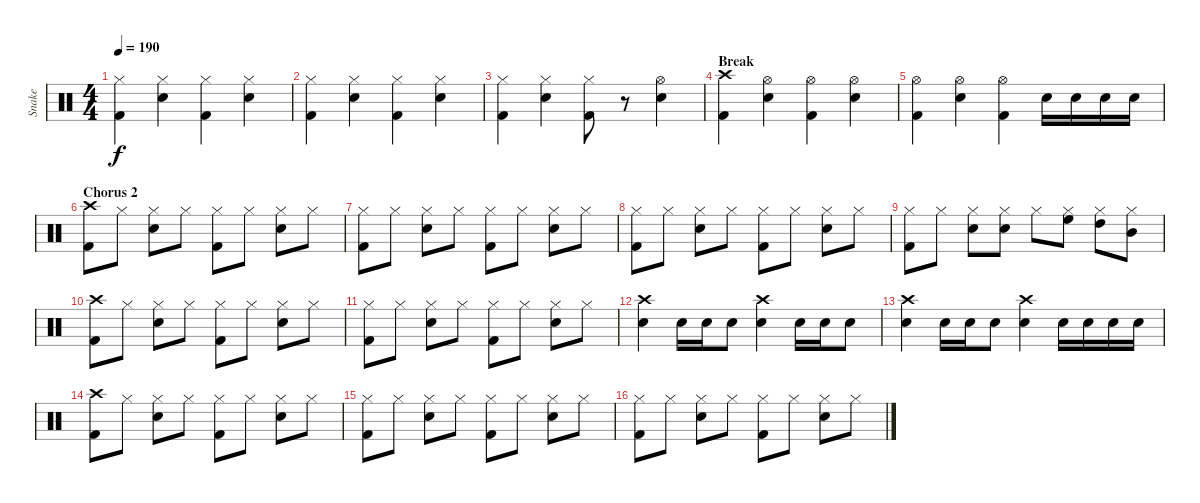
\track ("Snake" "Snake") {instrument percussion}
\staff {score}
\articulation defaults
\ts (4 4)
\tempo 190
\clef neutral
\ks c
("Hi-Hat (closed)" "Kick (hit) 2").4{dy f} ("Hi-Hat (closed)" "Snare (hit) 2").4 ("Hi-Hat (closed)" "Kick (hit) 2").4 ("Hi-Hat (closed)" "Snare (hit) 2").4 |
("Hi-Hat (closed)" "Kick (hit) 2").4 ("Hi-Hat (closed)" "Snare (hit) 2").4 ("Hi-Hat (closed)" "Kick (hit) 2").4 ("Hi-Hat (closed)" "Snare (hit) 2").4 |
("Hi-Hat (closed)" "Kick (hit) 2").4 ("Hi-Hat (closed)" "Snare (hit) 2").4 ("Hi-Hat (closed)" "Kick (hit) 2").8 r.8 ("Hi-Hat (open)" "Snare (hit) 2").4 |
\section ("" "Break")
("Crash high (hit)" "Kick (hit) 2").4 ("Hi-Hat (open)" "Snare (hit) 2").4 ("Hi-Hat (open)" "Kick (hit) 2").4 ("Hi-Hat (open)" "Snare (hit) 2").4 |
("Hi-Hat (open)" "Kick (hit) 2").4 ("Hi-Hat (open)" "Snare (hit) 2").4 ("Hi-Hat (open)" "Kick (hit) 2").4 "Snare (hit) 2".16 "Snare (hit) 2".16 "Snare (hit) 2".16 "Snare (hit) 2".16 |
\section ("" "Chorus 2")
("Crash high (hit)" "Kick (hit) 2").8 "Hi-Hat (closed)".8 ("Hi-Hat (closed)" "Snare (hit) 2").8 "Hi-Hat (closed)".8 ("Hi-Hat (closed)" "Kick (hit) 2").8 "Hi-Hat (closed)".8 ("Hi-Hat (closed)" "Snare (hit) 2").8 "Hi-Hat (closed)".8 |
("Hi-Hat (closed)" "Kick (hit) 2").8 "Hi-Hat (closed)".8 ("Hi-Hat (closed)" "Snare (hit) 2").8 "Hi-Hat (closed)".8 ("Hi-Hat (closed)" "Kick (hit) 2").8 "Hi-Hat (closed)".8 ("Hi-Hat (closed)" "Snare (hit) 2").8 "Hi-Hat (closed)".8 |
("Hi-Hat (closed)" "Kick (hit) 2").8 "Hi-Hat (closed)".8 ("Hi-Hat (closed)" "Snare (hit) 2").8 "Hi-Hat (closed)".8 ("Hi-Hat (closed)" "Kick (hit) 2").8 "Hi-Hat (closed)".8 ("Hi-Hat (closed)" "Snare (hit) 2").8 "Hi-Hat (closed)".8 |
("Hi-Hat (closed)" "Kick (hit) 2").8 "Hi-Hat (closed)".8 ("Hi-Hat (closed)" "Snare (hit) 2").8 ("Hi-Hat (closed)" "Snare (hit) 2").8 "Hi-Hat (closed)".8 ("Hi-Hat (closed)" "High Floor Tom (hit)").8 ("Hi-Hat (closed)" "High Tom (hit)").8 ("Hi-Hat (closed)" "Mid Tom (hit)").8 |
("Crash high (hit)" "Kick (hit) 2").8 "Hi-Hat (closed)".8 ("Hi-Hat (closed)" "Snare (hit) 2").8 "Hi-Hat (closed)".8 ("Hi-Hat (closed)" "Kick (hit) 2").8 "Hi-Hat (closed)".8 ("Hi-Hat (closed)" "Snare (hit) 2").8 "Hi-Hat (closed)".8 |
("Hi-Hat (closed)" "Kick (hit) 2").8 "Hi-Hat (closed)".8 ("Hi-Hat (closed)" "Snare (hit) 2").8 "Hi-Hat (closed)".8 ("Hi-Hat (closed)" "Kick (hit) 2").8 "Hi-Hat (closed)".8 ("Hi-Hat (closed)" "Snare (hit) 2").8 "Hi-Hat (closed)".8 |
("Crash high (hit)" "Snare (hit) 2").4 "Snare (hit) 2".16 "Snare (hit) 2".16 "Snare (hit) 2".8 ("Crash high (hit)" "Snare (hit) 2").4 "Snare (hit) 2".16 "Snare (hit) 2".16 "Snare (hit) 2".8 |
("Crash high (hit)" "Snare (hit) 2").4 "Snare (hit) 2".16 "Snare (hit) 2".16 "Snare (hit) 2".8 ("Crash high (hit)" "Snare (hit) 2").4 "Snare (hit) 2".16 "Snare (hit) 2".16 "Snare (hit) 2".16 "Snare (hit) 2".16 |
("Crash high (hit)" "Kick (hit) 2").8 "Hi-Hat (closed)".8 ("Hi-Hat (closed)" "Snare (hit) 2").8 "Hi-Hat (closed)".8 ("Hi-Hat (closed)" "Kick (hit) 2").8 "Hi-Hat (closed)".8 ("Hi-Hat (closed)" "Snare (hit) 2").8 "Hi-Hat (closed)".8 |
("Hi-Hat (closed)" "Kick (hit) 2").8 "Hi-Hat (closed)".8 ("Hi-Hat (closed)" "Snare (hit) 2").8 "Hi-Hat (closed)".8 ("Hi-Hat (closed)" "Kick (hit) 2").8 "Hi-Hat (closed)".8 ("Hi-Hat (closed)" "Snare (hit) 2").8 "Hi-Hat (closed)".8 |
("Hi-Hat (closed)" "Kick (hit) 2").8 "Hi-Hat (closed)".8 ("Hi-Hat (closed)" "Snare (hit) 2").8 "Hi-Hat (closed)".8 ("Hi-Hat (closed)" "Kick (hit) 2").8 "Hi-Hat (closed)".8 ("Hi-Hat (closed)" "Snare (hit) 2").8 "Hi-Hat (closed)".8
